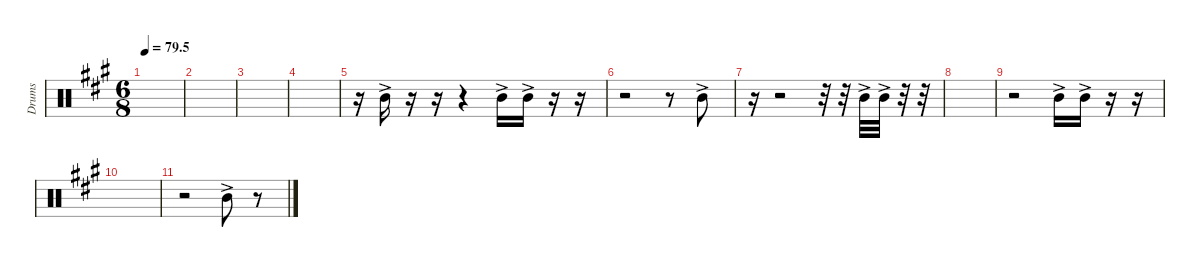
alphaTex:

\defaultSystemsLayout 4
\hideDynamics
\bracketExtendMode nobrackets
\otherSystemsTrackNameOrientation horizontal
\track ("Tom 02" "Drums") {instrument percussion}
\staff {score}
\articulation defaults
\ts (6 8)
\tempo
79.5
\accidentals auto
\clef neutral
\ottava regular
\simile none
\scale
0.333333
\ks a
|
\scale
0.333333 |
\scale
0.333333 |
\scale
0.333333 |
\scale
0.333333 r.16 "Mid Tom (hit)"{ac acc forcenatural}.16 r.16 r.16 r.4 "Mid Tom (hit)"{ac acc forcenatural}.16 "Mid Tom (hit)"{ac acc forcenatural}.16 r.16 r.16 |
\scale
0.333333 r.2 r.8 "Mid Tom (hit)"{ac acc forcenatural}.8 |
\scale
0.333333 r.16 r.2 r.32 r.32 "Mid Tom (hit)"{ac acc forcenatural}.32 "Mid Tom (hit)"{ac acc forcenatural}.32 r.32 r.32 |
\scale
0.333333 |
\scale
0.333333 r.2 "Mid Tom (hit)"{ac acc forcenatural}.16 "Mid Tom (hit)"{ac acc forcenatural}.16 r.16 r.16 |
\scale
0.333333 |
\scale
0.333333 r.2 "Mid Tom (hit)"{ac acc forcenatural}.8 r.8 |
\scale
0.333333 |
\scale
0.333333 |
\scale
0.333333 |
\scale
0.333333 |
\scale
0.333333
